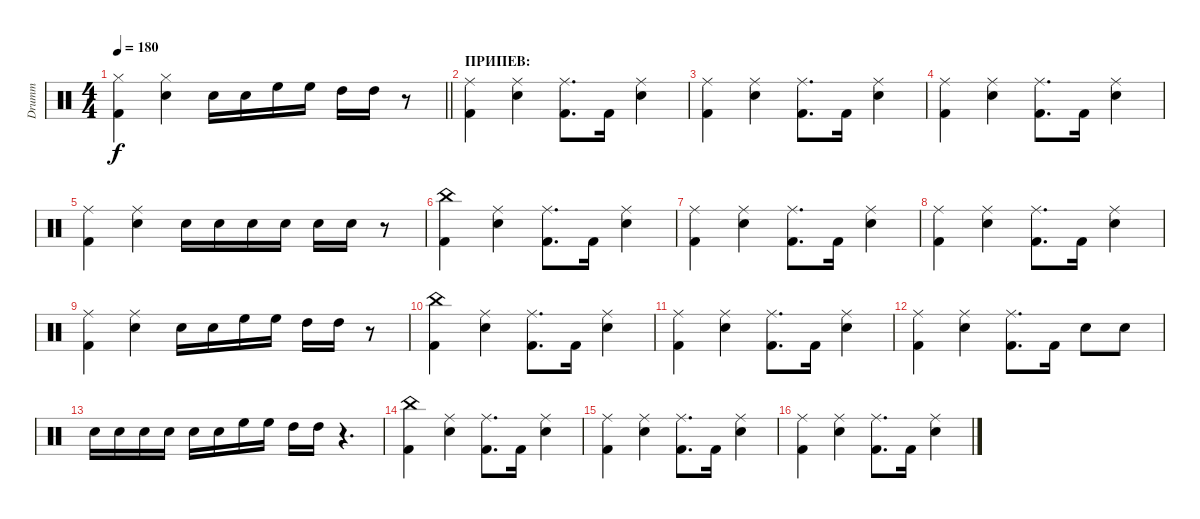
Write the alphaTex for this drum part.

\track ("Drumm" "Drumm") {instrument percussion}
\staff {score}
\articulation defaults
\ts (4 4)
\tempo 180
\clef neutral
\barLineRight lightlight
\ks c
("Hi-Hat (closed)" "Kick (hit) 2").4{dy f} ("Hi-Hat (closed)" "Electric Snare (hit)").4 "Electric Snare (hit)".16 "Electric Snare (hit)".16 "High Floor Tom (hit)".16 "High Floor Tom (hit)".16 "High Tom (hit)".16 "High Tom (hit)".16 r.8 |
\section ("" "ПРИПЕВ:")
("Ride (middle)" "Kick (hit) 2").4 ("Ride (middle)" "Electric Snare (hit)").4 ("Ride (middle)" "Kick (hit) 2").8{d} "Kick (hit) 2".16 ("Ride (middle)" "Electric Snare (hit)").4 |
("Ride (middle)" "Kick (hit) 2").4 ("Ride (middle)" "Electric Snare (hit)").4 ("Ride (middle)" "Kick (hit) 2").8{d} "Kick (hit) 2".16 ("Ride (middle)" "Electric Snare (hit)").4 |
("Ride (middle)" "Kick (hit) 2").4 ("Ride (middle)" "Electric Snare (hit)").4 ("Ride (middle)" "Kick (hit) 2").8{d} "Kick (hit) 2".16 ("Ride (middle)" "Electric Snare (hit)").4 |
("Ride (middle)" "Kick (hit) 2").4 ("Ride (middle)" "Electric Snare (hit)").4 "Electric Snare (hit)".16 "Electric Snare (hit)".16 "Electric Snare (hit)".16 "Electric Snare (hit)".16 "Electric Snare (hit)".16 "Electric Snare (hit)".16 r.8 |
("China (hit)" "Kick (hit) 2").4 ("Ride (middle)" "Electric Snare (hit)").4 ("Ride (middle)" "Kick (hit) 2").8{d} "Kick (hit) 2".16 ("Ride (middle)" "Electric Snare (hit)").4 |
("Ride (middle)" "Kick (hit) 2").4 ("Ride (middle)" "Electric Snare (hit)").4 ("Ride (middle)" "Kick (hit) 2").8{d} "Kick (hit) 2".16 ("Ride (middle)" "Electric Snare (hit)").4 |
("Ride (middle)" "Kick (hit) 2").4 ("Ride (middle)" "Electric Snare (hit)").4 ("Ride (middle)" "Kick (hit) 2").8{d} "Kick (hit) 2".16 ("Ride (middle)" "Electric Snare (hit)").4 |
("Ride (middle)" "Kick (hit) 2").4 ("Ride (middle)" "Electric Snare (hit)").4 "Electric Snare (hit)".16 "Electric Snare (hit)".16 "High Floor Tom (hit)".16 "High Floor Tom (hit)".16 "High Tom (hit)".16 "High Tom (hit)".16 r.8 |
("China (hit)" "Kick (hit) 2").4 ("Ride (middle)" "Electric Snare (hit)").4 ("Ride (middle)" "Kick (hit) 2").8{d} "Kick (hit) 2".16 ("Ride (middle)" "Electric Snare (hit)").4 |
("Ride (middle)" "Kick (hit) 2").4 ("Ride (middle)" "Electric Snare (hit)").4 ("Ride (middle)" "Kick (hit) 2").8{d} "Kick (hit) 2".16 ("Ride (middle)" "Electric Snare (hit)").4 |
("Ride (middle)" "Kick (hit) 2").4 ("Ride (middle)" "Electric Snare (hit)").4 ("Ride (middle)" "Kick (hit) 2").8{d} "Kick (hit) 2".16 "Electric Snare (hit)".8 "Electric Snare (hit)".8 |
"Electric Snare (hit)".16 "Electric Snare (hit)".16 "Electric Snare (hit)".16 "Electric Snare (hit)".16 "Electric Snare (hit)".16 "Electric Snare (hit)".16 "High Floor Tom (hit)".16 "High Floor Tom (hit)".16 "High Tom (hit)".16 "High Tom (hit)".16 r.4{d} |
("China (hit)" "Kick (hit) 2").4 ("Ride (middle)" "Electric Snare (hit)").4 ("Ride (middle)" "Kick (hit) 2").8{d} "Kick (hit) 2".16 ("Ride (middle)" "Electric Snare (hit)").4 |
("Ride (middle)" "Kick (hit) 2").4 ("Ride (middle)" "Electric Snare (hit)").4 ("Ride (middle)" "Kick (hit) 2").8{d} "Kick (hit) 2".16 ("Ride (middle)" "Electric Snare (hit)").4 |
("Ride (middle)" "Kick (hit) 2").4 ("Ride (middle)" "Electric Snare (hit)").4 ("Ride (middle)" "Kick (hit) 2").8{d} "Kick (hit) 2".16 ("Ride (middle)" "Electric Snare (hit)").4
